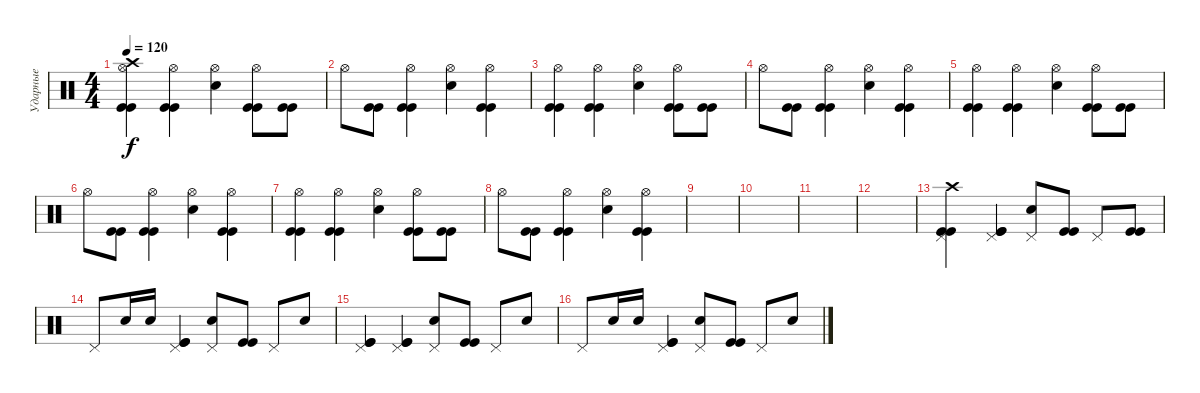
\track ("Ударные" "Ударные") {instrument percussion}
\staff {score}
\articulation defaults
\ts (4 4)
\tempo 120
\clef neutral
\ks c
("Crash high (hit)" "Hi-Hat (open)" "Kick (hit)" "Kick (hit)").4{dy f} ("Hi-Hat (open)" "Kick (hit)" "Kick (hit)").4 ("Snare (hit) 2" "Hi-Hat (open)").4 ("Hi-Hat (open)" "Kick (hit)" "Kick (hit)").8 ("Kick (hit)" "Kick (hit)").8 |
"Hi-Hat (open)".8 ("Kick (hit)" "Kick (hit)").8 ("Hi-Hat (open)" "Kick (hit)" "Kick (hit)").4 ("Snare (hit) 2" "Hi-Hat (open)").4 ("Hi-Hat (open)" "Kick (hit)" "Kick (hit)").4 |
("Hi-Hat (open)" "Kick (hit)" "Kick (hit)").4 ("Hi-Hat (open)" "Kick (hit)" "Kick (hit)").4 ("Snare (hit) 2" "Hi-Hat (open)").4 ("Hi-Hat (open)" "Kick (hit)" "Kick (hit)").8 ("Kick (hit)" "Kick (hit)").8 |
"Hi-Hat (open)".8 ("Kick (hit)" "Kick (hit)").8 ("Hi-Hat (open)" "Kick (hit)" "Kick (hit)").4 ("Snare (hit) 2" "Hi-Hat (open)").4 ("Hi-Hat (open)" "Kick (hit)" "Kick (hit)").4 |
("Hi-Hat (open)" "Kick (hit)" "Kick (hit)").4 ("Hi-Hat (open)" "Kick (hit)" "Kick (hit)").4 ("Snare (hit) 2" "Hi-Hat (open)").4 ("Hi-Hat (open)" "Kick (hit)" "Kick (hit)").8 ("Kick (hit)" "Kick (hit)").8 |
"Hi-Hat (open)".8 ("Kick (hit)" "Kick (hit)").8 ("Hi-Hat (open)" "Kick (hit)" "Kick (hit)").4 ("Snare (hit) 2" "Hi-Hat (open)").4 ("Hi-Hat (open)" "Kick (hit)" "Kick (hit)").4 |
("Hi-Hat (open)" "Kick (hit)" "Kick (hit)").4 ("Hi-Hat (open)" "Kick (hit)" "Kick (hit)").4 ("Snare (hit) 2" "Hi-Hat (open)").4 ("Hi-Hat (open)" "Kick (hit)" "Kick (hit)").8 ("Kick (hit)" "Kick (hit)").8 |
"Hi-Hat (open)".8 ("Kick (hit)" "Kick (hit)").8 ("Hi-Hat (open)" "Kick (hit)" "Kick (hit)").4 ("Snare (hit) 2" "Hi-Hat (open)").4 ("Hi-Hat (open)" "Kick (hit)" "Kick (hit)").4 |
|
|
|
|
("Crash high (hit)" "Pedal Hi-Hat (hit)" "Kick (hit)" "Kick (hit)").4 ("Pedal Hi-Hat (hit)" "Kick (hit)" "Kick (hit)").4 ("Snare (hit) 2" "Pedal Hi-Hat (hit)").8 ("Kick (hit)" "Kick (hit)").8 "Pedal Hi-Hat (hit)".8 ("Kick (hit)" "Kick (hit)").8 |
"Pedal Hi-Hat (hit)".8 "Snare (hit) 2".16 "Snare (hit) 2".16 ("Pedal Hi-Hat (hit)" "Kick (hit)" "Kick (hit)").4 ("Snare (hit) 2" "Pedal Hi-Hat (hit)").8 ("Kick (hit)" "Kick (hit)").8 "Pedal Hi-Hat (hit)".8 "Snare (hit) 2".8 |
("Pedal Hi-Hat (hit)" "Kick (hit)" "Kick (hit)").4 ("Pedal Hi-Hat (hit)" "Kick (hit)" "Kick (hit)").4 ("Snare (hit) 2" "Pedal Hi-Hat (hit)").8 ("Kick (hit)" "Kick (hit)").8 "Pedal Hi-Hat (hit)".8 "Snare (hit) 2".8 |
"Pedal Hi-Hat (hit)".8 "Snare (hit) 2".16 "Snare (hit) 2".16 ("Pedal Hi-Hat (hit)" "Kick (hit)" "Kick (hit)").4 ("Snare (hit) 2" "Pedal Hi-Hat (hit)").8 ("Kick (hit)" "Kick (hit)").8 "Pedal Hi-Hat (hit)".8 "Snare (hit) 2".8
